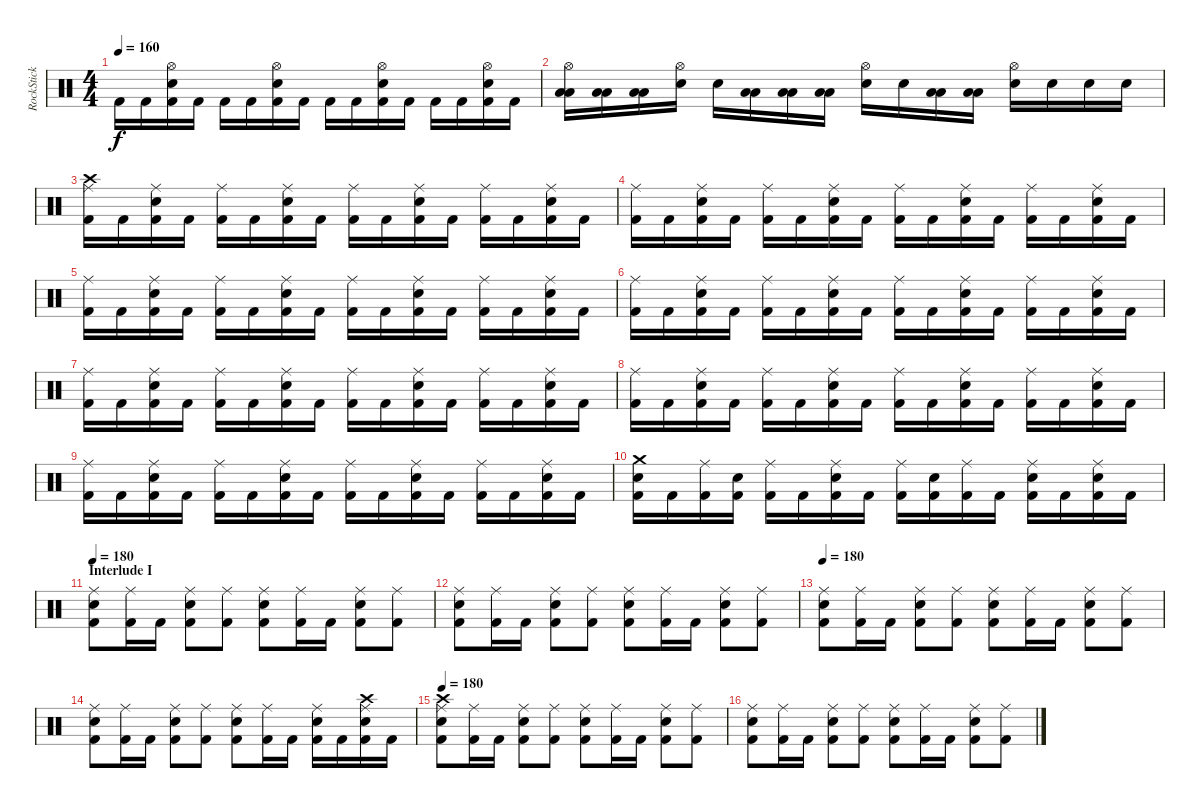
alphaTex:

\track ("RockStick" "RockStick") {instrument percussion}
\staff {score}
\articulation defaults
\ts (4 4)
\tempo 160
\clef neutral
\ks c "Kick (hit) 2".16{dy f} "Kick (hit) 2".16
("Electric Snare (hit)" "Kick (hit) 2" "Hi-Hat (open)").16 "Kick (hit) 2".16 "Kick (hit) 2".16 "Kick (hit) 2".16 ("Electric Snare (hit)" "Kick (hit) 2" "Hi-Hat (open)").16 "Kick (hit) 2".16 "Kick (hit) 2".16 "Kick (hit) 2".16 ("Electric Snare (hit)" "Kick (hit) 2" "Hi-Hat (open)").16 "Kick (hit) 2".16 "Kick (hit) 2".16 "Kick (hit) 2".16 ("Electric Snare (hit)" "Kick (hit) 2" "Hi-Hat (open)").16 "Kick (hit) 2".16 |
("Low Tom (hit)" "Low Tom (hit)" "Hi-Hat (open)").16 ("Low Tom (hit)" "Low Tom (hit)").16 ("Low Tom (hit)" "Low Tom (hit)").16 ("Electric Snare (hit)" "Hi-Hat (open)").16 "Electric Snare (hit)".16 ("Low Tom (hit)" "Low Tom (hit)").16 ("Low Tom (hit)" "Low Tom (hit)").16 ("Low Tom (hit)" "Low Tom (hit)").16 ("Electric Snare (hit)" "Hi-Hat (open)").16 "Electric Snare (hit)".16 ("Low Tom (hit)" "Low Tom (hit)").16 ("Low Tom (hit)" "Low Tom (hit)").16 ("Electric Snare (hit)" "Hi-Hat (open)").16 "Electric Snare (hit)".16 "Electric Snare (hit)".16 "Electric Snare (hit)".16 |
("Crash high (hit)" "Kick (hit) 2" "Ride (middle)").16 "Kick (hit) 2".16 ("Electric Snare (hit)" "Kick (hit) 2" "Ride (middle)").16 "Kick (hit) 2".16 ("Kick (hit) 2" "Ride (middle)").16 "Kick (hit) 2".16 ("Electric Snare (hit)" "Kick (hit) 2" "Ride (middle)").16 "Kick (hit) 2".16 ("Kick (hit) 2" "Ride (middle)").16 "Kick (hit) 2".16 ("Electric Snare (hit)" "Kick (hit) 2" "Ride (middle)").16 "Kick (hit) 2".16 ("Kick (hit) 2" "Ride (middle)").16 "Kick (hit) 2".16 ("Electric Snare (hit)" "Kick (hit) 2" "Ride (middle)").16 "Kick (hit) 2".16 |
("Kick (hit) 2" "Ride (middle)").16 "Kick (hit) 2".16 ("Electric Snare (hit)" "Kick (hit) 2" "Ride (middle)").16 "Kick (hit) 2".16 ("Kick (hit) 2" "Ride (middle)").16 "Kick (hit) 2".16 ("Electric Snare (hit)" "Kick (hit) 2" "Ride (middle)").16 "Kick (hit) 2".16 ("Kick (hit) 2" "Ride (middle)").16 "Kick (hit) 2".16 ("Electric Snare (hit)" "Kick (hit) 2" "Ride (middle)").16 "Kick (hit) 2".16 ("Kick (hit) 2" "Ride (middle)").16 "Kick (hit) 2".16 ("Electric Snare (hit)" "Kick (hit) 2" "Ride (middle)").16 "Kick (hit) 2".16 |
("Kick (hit) 2" "Ride (middle)").16 "Kick (hit) 2".16 ("Electric Snare (hit)" "Kick (hit) 2" "Ride (middle)").16 "Kick (hit) 2".16 ("Kick (hit) 2" "Ride (middle)").16 "Kick (hit) 2".16 ("Electric Snare (hit)" "Kick (hit) 2" "Ride (middle)").16 "Kick (hit) 2".16 ("Kick (hit) 2" "Ride (middle)").16 "Kick (hit) 2".16 ("Electric Snare (hit)" "Kick (hit) 2" "Ride (middle)").16 "Kick (hit) 2".16 ("Kick (hit) 2" "Ride (middle)").16 "Kick (hit) 2".16 ("Electric Snare (hit)" "Kick (hit) 2" "Ride (middle)").16 "Kick (hit) 2".16 |
("Kick (hit) 2" "Ride (middle)").16 "Kick (hit) 2".16 ("Electric Snare (hit)" "Kick (hit) 2" "Ride (middle)").16 "Kick (hit) 2".16 ("Kick (hit) 2" "Ride (middle)").16 "Kick (hit) 2".16 ("Electric Snare (hit)" "Kick (hit) 2" "Ride (middle)").16 "Kick (hit) 2".16 ("Kick (hit) 2" "Ride (middle)").16 "Kick (hit) 2".16 ("Electric Snare (hit)" "Kick (hit) 2" "Ride (middle)").16 "Kick (hit) 2".16 ("Kick (hit) 2" "Ride (middle)").16 "Kick (hit) 2".16 ("Electric Snare (hit)" "Kick (hit) 2" "Ride (middle)").16 "Kick (hit) 2".16 |
("Kick (hit) 2" "Ride (middle)").16 "Kick (hit) 2".16 ("Electric Snare (hit)" "Kick (hit) 2" "Ride (middle)").16 "Kick (hit) 2".16 ("Kick (hit) 2" "Ride (middle)").16 "Kick (hit) 2".16 ("Electric Snare (hit)" "Kick (hit) 2" "Ride (middle)").16 "Kick (hit) 2".16 ("Kick (hit) 2" "Ride (middle)").16 "Kick (hit) 2".16 ("Electric Snare (hit)" "Kick (hit) 2" "Ride (middle)").16 "Kick (hit) 2".16 ("Kick (hit) 2" "Ride (middle)").16 "Kick (hit) 2".16 ("Electric Snare (hit)" "Kick (hit) 2" "Ride (middle)").16 "Kick (hit) 2".16 |
("Kick (hit) 2" "Ride (middle)").16 "Kick (hit) 2".16 ("Electric Snare (hit)" "Kick (hit) 2" "Ride (middle)").16 "Kick (hit) 2".16 ("Kick (hit) 2" "Ride (middle)").16 "Kick (hit) 2".16 ("Electric Snare (hit)" "Kick (hit) 2" "Ride (middle)").16 "Kick (hit) 2".16 ("Kick (hit) 2" "Ride (middle)").16 "Kick (hit) 2".16 ("Electric Snare (hit)" "Kick (hit) 2" "Ride (middle)").16 "Kick (hit) 2".16 ("Kick (hit) 2" "Ride (middle)").16 "Kick (hit) 2".16 ("Electric Snare (hit)" "Kick (hit) 2" "Ride (middle)").16 "Kick (hit) 2".16 |
("Kick (hit) 2" "Ride (middle)").16 "Kick (hit) 2".16 ("Electric Snare (hit)" "Kick (hit) 2" "Ride (middle)").16 "Kick (hit) 2".16 ("Kick (hit) 2" "Ride (middle)").16 "Kick (hit) 2".16 ("Electric Snare (hit)" "Kick (hit) 2" "Ride (middle)").16 "Kick (hit) 2".16 ("Kick (hit) 2" "Ride (middle)").16 "Kick (hit) 2".16 ("Electric Snare (hit)" "Kick (hit) 2" "Ride (middle)").16 "Kick (hit) 2".16 ("Kick (hit) 2" "Ride (middle)").16 "Kick (hit) 2".16 ("Electric Snare (hit)" "Kick (hit) 2" "Ride (middle)").16 "Kick (hit) 2".16 |
("Kick (hit) 2" "Crash medium (hit)" "Electric Snare (hit)").16 "Kick (hit) 2".16 ("Kick (hit) 2" "Ride (middle)").16 ("Kick (hit) 2" "Electric Snare (hit)").16 ("Kick (hit) 2" "Ride (middle)").16 "Kick (hit) 2".16 ("Kick (hit) 2" "Ride (middle)" "Electric Snare (hit)").16 "Kick (hit) 2".16 ("Kick (hit) 2" "Ride (middle)").16 ("Kick (hit) 2" "Electric Snare (hit)").16 ("Kick (hit) 2" "Ride (middle)").16 "Kick (hit) 2".16 ("Kick (hit) 2" "Ride (middle)" "Electric Snare (hit)").16 "Kick (hit) 2".16 ("Kick (hit) 2" "Ride (middle)" "Electric Snare (hit)").16 "Kick (hit) 2".16 |
\section ("" "Interlude I")
\tempo 180
("Kick (hit) 2" "Electric Snare (hit)" "Ride (middle)").8 ("Kick (hit) 2" "Ride (middle)").16 "Kick (hit) 2".16 ("Kick (hit) 2" "Electric Snare (hit)" "Ride (middle)").8 ("Kick (hit) 2" "Ride (middle)").8 ("Kick (hit) 2" "Electric Snare (hit)" "Ride (middle)").8 ("Kick (hit) 2" "Ride (middle)").16 "Kick (hit) 2".16 ("Kick (hit) 2" "Electric Snare (hit)" "Ride (middle)").8 ("Kick (hit) 2" "Ride (middle)").8 |
("Kick (hit) 2" "Electric Snare (hit)" "Ride (middle)").8 ("Kick (hit) 2" "Ride (middle)").16 "Kick (hit) 2".16 ("Kick (hit) 2" "Electric Snare (hit)" "Ride (middle)").8 ("Kick (hit) 2" "Ride (middle)").8 ("Kick (hit) 2" "Electric Snare (hit)" "Ride (middle)").8 ("Kick (hit) 2" "Ride (middle)").16 "Kick (hit) 2".16 ("Kick (hit) 2" "Electric Snare (hit)" "Ride (middle)").8 ("Kick (hit) 2" "Ride (middle)").8 |
\tempo 180
("Kick (hit) 2" "Electric Snare (hit)" "Ride (middle)").8 ("Kick (hit) 2" "Ride (middle)").16 "Kick (hit) 2".16 ("Kick (hit) 2" "Electric Snare (hit)" "Ride (middle)").8 ("Kick (hit) 2" "Ride (middle)").8 ("Kick (hit) 2" "Electric Snare (hit)" "Ride (middle)").8 ("Kick (hit) 2" "Ride (middle)").16 "Kick (hit) 2".16 ("Kick (hit) 2" "Electric Snare (hit)" "Ride (middle)").8 ("Kick (hit) 2" "Ride (middle)").8 |
("Kick (hit) 2" "Electric Snare (hit)" "Ride (middle)").8 ("Kick (hit) 2" "Ride (middle)").16 "Kick (hit) 2".16 ("Kick (hit) 2" "Electric Snare (hit)" "Ride (middle)").8 ("Kick (hit) 2" "Ride (middle)").8 ("Kick (hit) 2" "Electric Snare (hit)" "Ride (middle)").8 ("Kick (hit) 2" "Ride (middle)").16 "Kick (hit) 2".16 ("Kick (hit) 2" "Electric Snare (hit)" "Ride (middle)").16 "Kick (hit) 2".16 ("Kick (hit) 2" "Electric Snare (hit)" "Ride (middle)" "Crash high (hit)").16 "Kick (hit) 2".16 |
\tempo 180
("Kick (hit) 2" "Electric Snare (hit)" "Ride (middle)" "Crash high (hit)").8 ("Kick (hit) 2" "Ride (middle)").16 "Kick (hit) 2".16 ("Kick (hit) 2" "Electric Snare (hit)" "Ride (middle)").8 ("Kick (hit) 2" "Ride (middle)").8 ("Kick (hit) 2" "Electric Snare (hit)" "Ride (middle)").8 ("Kick (hit) 2" "Ride (middle)").16 "Kick (hit) 2".16 ("Kick (hit) 2" "Electric Snare (hit)" "Ride (middle)").8 ("Kick (hit) 2" "Ride (middle)").8 |
("Kick (hit) 2" "Electric Snare (hit)" "Ride (middle)").8 ("Kick (hit) 2" "Ride (middle)").16 "Kick (hit) 2".16 ("Kick (hit) 2" "Electric Snare (hit)" "Ride (middle)").8 ("Kick (hit) 2" "Ride (middle)").8 ("Kick (hit) 2" "Electric Snare (hit)" "Ride (middle)").8 ("Kick (hit) 2" "Ride (middle)").16 "Kick (hit) 2".16 ("Kick (hit) 2" "Electric Snare (hit)" "Ride (middle)").8 ("Kick (hit) 2" "Ride (middle)").8
